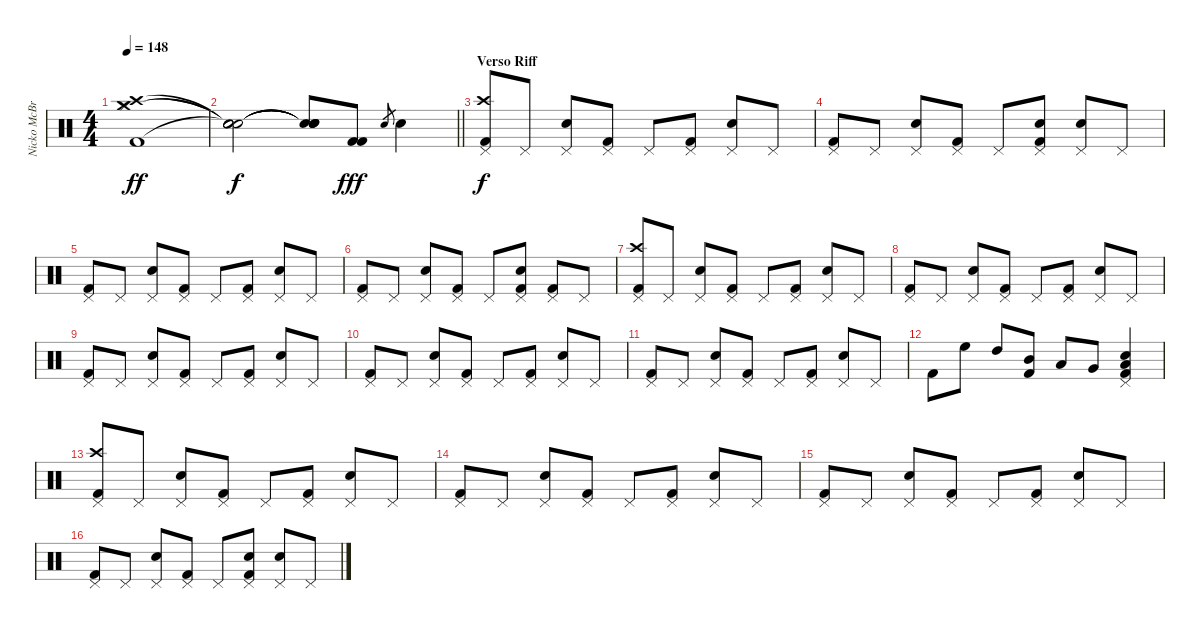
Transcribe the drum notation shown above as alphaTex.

\track ("Nicko McBrain" "Nicko McBr") {instrument percussion}
\staff {score}
\articulation defaults
\ts (4 4)
\tempo 148
\clef neutral
\ks c
("Kick (hit) 2" "Hi-Hat (closed)" "Crash high (hit)" "Crash medium (hit)").1{dy ff} |
\barLineRight lightlight
("Snare (hit)"{t} "Snare (hit)"{t} "Snare (hit)"{t} "Snare (hit)"{t}).2{dy f} ("Snare (hit)"{t} "Snare (hit)"{t} "Snare (hit)"{t} "Snare (hit)"{t}).8 ("Kick (hit) 2" "Kick (hit) 2").8{dy fff} "Snare (hit) 2".8{gr} "Snare (hit) 2".4 |
\section ("" "Verso Riff")
("Kick (hit) 2" "Pedal Hi-Hat (hit)" "Crash high (hit)").8{dy f} "Pedal Hi-Hat (hit)".8 ("Snare (hit) 2" "Pedal Hi-Hat (hit)").8 ("Kick (hit) 2" "Pedal Hi-Hat (hit)").8 "Pedal Hi-Hat (hit)".8 ("Kick (hit) 2" "Pedal Hi-Hat (hit)").8 ("Snare (hit) 2" "Pedal Hi-Hat (hit)").8 "Pedal Hi-Hat (hit)".8 |
("Kick (hit) 2" "Pedal Hi-Hat (hit)").8 "Pedal Hi-Hat (hit)".8 ("Snare (hit) 2" "Pedal Hi-Hat (hit)").8 ("Kick (hit) 2" "Pedal Hi-Hat (hit)").8 "Pedal Hi-Hat (hit)".8 ("Kick (hit) 2" "Pedal Hi-Hat (hit)" "Snare (hit) 2").8 ("Snare (hit) 2" "Pedal Hi-Hat (hit)").8 "Pedal Hi-Hat (hit)".8 |
("Kick (hit) 2" "Pedal Hi-Hat (hit)").8 "Pedal Hi-Hat (hit)".8 ("Snare (hit) 2" "Pedal Hi-Hat (hit)").8 ("Kick (hit) 2" "Pedal Hi-Hat (hit)").8 "Pedal Hi-Hat (hit)".8 ("Kick (hit) 2" "Pedal Hi-Hat (hit)").8 ("Snare (hit) 2" "Pedal Hi-Hat (hit)").8 "Pedal Hi-Hat (hit)".8 |
("Kick (hit) 2" "Pedal Hi-Hat (hit)").8 "Pedal Hi-Hat (hit)".8 ("Snare (hit) 2" "Pedal Hi-Hat (hit)").8 ("Kick (hit) 2" "Pedal Hi-Hat (hit)").8 "Pedal Hi-Hat (hit)".8 ("Kick (hit) 2" "Pedal Hi-Hat (hit)" "Snare (hit) 2").8 ("Kick (hit) 2" "Pedal Hi-Hat (hit)").8 "Pedal Hi-Hat (hit)".8 |
("Kick (hit) 2" "Pedal Hi-Hat (hit)" "Crash high (hit)").8 "Pedal Hi-Hat (hit)".8 ("Snare (hit) 2" "Pedal Hi-Hat (hit)").8 ("Kick (hit) 2" "Pedal Hi-Hat (hit)").8 "Pedal Hi-Hat (hit)".8 ("Kick (hit) 2" "Pedal Hi-Hat (hit)").8 ("Snare (hit) 2" "Pedal Hi-Hat (hit)").8 "Pedal Hi-Hat (hit)".8 |
("Kick (hit) 2" "Pedal Hi-Hat (hit)").8 "Pedal Hi-Hat (hit)".8 ("Snare (hit) 2" "Pedal Hi-Hat (hit)").8 ("Kick (hit) 2" "Pedal Hi-Hat (hit)").8 "Pedal Hi-Hat (hit)".8 ("Kick (hit) 2" "Pedal Hi-Hat (hit)").8 ("Snare (hit) 2" "Pedal Hi-Hat (hit)").8 "Pedal Hi-Hat (hit)".8 |
("Kick (hit) 2" "Pedal Hi-Hat (hit)").8 "Pedal Hi-Hat (hit)".8 ("Snare (hit) 2" "Pedal Hi-Hat (hit)").8 ("Kick (hit) 2" "Pedal Hi-Hat (hit)").8 "Pedal Hi-Hat (hit)".8 ("Kick (hit) 2" "Pedal Hi-Hat (hit)").8 ("Snare (hit) 2" "Pedal Hi-Hat (hit)").8 "Pedal Hi-Hat (hit)".8 |
("Kick (hit) 2" "Pedal Hi-Hat (hit)").8 "Pedal Hi-Hat (hit)".8 ("Snare (hit) 2" "Pedal Hi-Hat (hit)").8 ("Kick (hit) 2" "Pedal Hi-Hat (hit)").8 "Pedal Hi-Hat (hit)".8 ("Kick (hit) 2" "Pedal Hi-Hat (hit)").8 ("Snare (hit) 2" "Pedal Hi-Hat (hit)").8 "Pedal Hi-Hat (hit)".8 |
("Kick (hit) 2" "Pedal Hi-Hat (hit)").8 "Pedal Hi-Hat (hit)".8 ("Snare (hit) 2" "Pedal Hi-Hat (hit)").8 ("Kick (hit) 2" "Pedal Hi-Hat (hit)").8 "Pedal Hi-Hat (hit)".8 ("Kick (hit) 2" "Pedal Hi-Hat (hit)").8 ("Snare (hit) 2" "Pedal Hi-Hat (hit)").8 "Pedal Hi-Hat (hit)".8 |
"Kick (hit) 2".8 "High Floor Tom (hit)".8 "High Tom (hit)".8 ("Kick (hit) 2" "Mid Tom (hit)").8 "Low Tom (hit)".8 "Very Low Tom (hit)".8 ("Snare (hit) 2" "Pedal Hi-Hat (hit)" "Low Floor Tom (hit)" "Kick (hit) 2").4 |
("Kick (hit) 2" "Pedal Hi-Hat (hit)" "Crash high (hit)").8 "Pedal Hi-Hat (hit)".8 ("Snare (hit) 2" "Pedal Hi-Hat (hit)").8 ("Kick (hit) 2" "Pedal Hi-Hat (hit)").8 "Pedal Hi-Hat (hit)".8 ("Kick (hit) 2" "Pedal Hi-Hat (hit)").8 ("Snare (hit) 2" "Pedal Hi-Hat (hit)").8 "Pedal Hi-Hat (hit)".8 |
("Kick (hit) 2" "Pedal Hi-Hat (hit)").8 "Pedal Hi-Hat (hit)".8 ("Snare (hit) 2" "Pedal Hi-Hat (hit)").8 ("Kick (hit) 2" "Pedal Hi-Hat (hit)").8 "Pedal Hi-Hat (hit)".8 ("Kick (hit) 2" "Pedal Hi-Hat (hit)").8 ("Snare (hit) 2" "Pedal Hi-Hat (hit)").8 "Pedal Hi-Hat (hit)".8 |
("Kick (hit) 2" "Pedal Hi-Hat (hit)").8 "Pedal Hi-Hat (hit)".8 ("Snare (hit) 2" "Pedal Hi-Hat (hit)").8 ("Kick (hit) 2" "Pedal Hi-Hat (hit)").8 "Pedal Hi-Hat (hit)".8 ("Kick (hit) 2" "Pedal Hi-Hat (hit)").8 ("Snare (hit) 2" "Pedal Hi-Hat (hit)").8 "Pedal Hi-Hat (hit)".8 |
("Kick (hit) 2" "Pedal Hi-Hat (hit)").8 "Pedal Hi-Hat (hit)".8 ("Snare (hit) 2" "Pedal Hi-Hat (hit)").8 ("Kick (hit) 2" "Pedal Hi-Hat (hit)").8 "Pedal Hi-Hat (hit)".8 ("Kick (hit) 2" "Pedal Hi-Hat (hit)" "Snare (hit) 2").8 ("Snare (hit) 2" "Pedal Hi-Hat (hit)").8 "Pedal Hi-Hat (hit)".8
